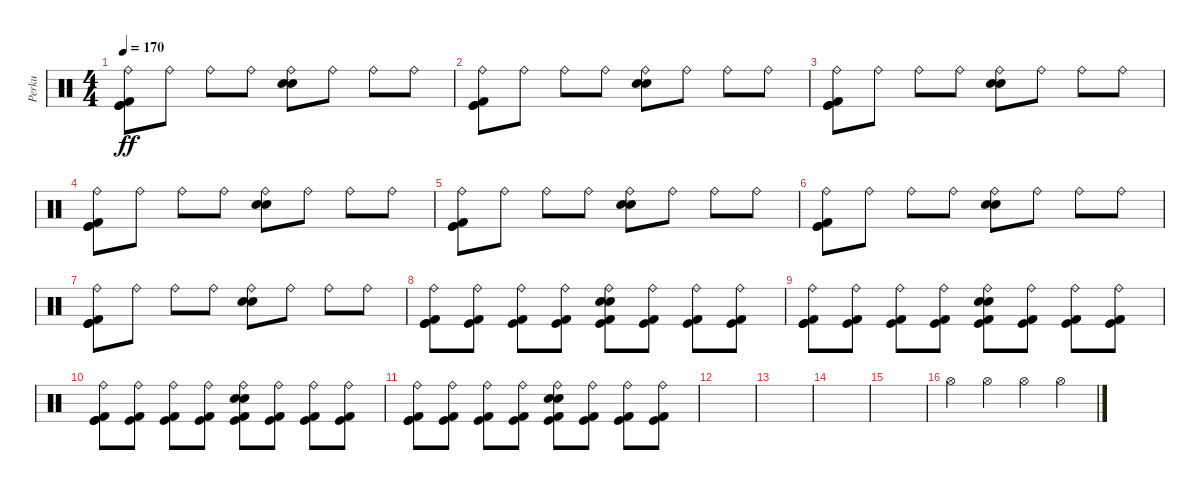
\track ("Perku" "Perku") {instrument percussion}
\staff {score}
\articulation defaults
\ts (4 4)
\tempo 170
\clef neutral
\ks c
("Ride (bell)" "Kick (hit)" "Kick (hit) 2" "Kick (hit)").8{dy ff} "Ride (bell)".8 "Ride (bell)".8 "Ride (bell)".8 ("Ride (bell)" "Electric Snare (hit)" "Electric Snare (hit)").8 "Ride (bell)".8 "Ride (bell)".8 "Ride (bell)".8 |
("Ride (bell)" "Kick (hit)" "Kick (hit) 2" "Kick (hit)").8 "Ride (bell)".8 "Ride (bell)".8 "Ride (bell)".8 ("Ride (bell)" "Electric Snare (hit)" "Electric Snare (hit)").8 "Ride (bell)".8 "Ride (bell)".8 "Ride (bell)".8 |
("Ride (bell)" "Kick (hit)" "Kick (hit) 2" "Kick (hit)").8 "Ride (bell)".8 "Ride (bell)".8 "Ride (bell)".8 ("Ride (bell)" "Electric Snare (hit)" "Electric Snare (hit)").8 "Ride (bell)".8 "Ride (bell)".8 "Ride (bell)".8 |
("Ride (bell)" "Kick (hit)" "Kick (hit) 2" "Kick (hit)").8 "Ride (bell)".8 "Ride (bell)".8 "Ride (bell)".8 ("Ride (bell)" "Electric Snare (hit)" "Electric Snare (hit)").8 "Ride (bell)".8 "Ride (bell)".8 "Ride (bell)".8 |
("Ride (bell)" "Kick (hit)" "Kick (hit) 2" "Kick (hit)").8 "Ride (bell)".8 "Ride (bell)".8 "Ride (bell)".8 ("Ride (bell)" "Electric Snare (hit)" "Electric Snare (hit)").8 "Ride (bell)".8 "Ride (bell)".8 "Ride (bell)".8 |
("Ride (bell)" "Kick (hit)" "Kick (hit) 2" "Kick (hit)").8 "Ride (bell)".8 "Ride (bell)".8 "Ride (bell)".8 ("Ride (bell)" "Electric Snare (hit)" "Electric Snare (hit)").8 "Ride (bell)".8 "Ride (bell)".8 "Ride (bell)".8 |
("Ride (bell)" "Kick (hit)" "Kick (hit) 2" "Kick (hit)").8 "Ride (bell)".8 "Ride (bell)".8 "Ride (bell)".8 ("Ride (bell)" "Electric Snare (hit)" "Electric Snare (hit)").8 "Ride (bell)".8 "Ride (bell)".8 "Ride (bell)".8 |
("Ride (bell)" "Kick (hit)" "Kick (hit) 2" "Kick (hit)").8 ("Ride (bell)" "Kick (hit) 2" "Kick (hit)").8 ("Ride (bell)" "Kick (hit) 2" "Kick (hit)").8 ("Ride (bell)" "Kick (hit) 2" "Kick (hit)").8 ("Ride (bell)" "Electric Snare (hit)" "Electric Snare (hit)" "Kick (hit) 2" "Kick (hit)").8 ("Ride (bell)" "Kick (hit) 2" "Kick (hit)").8 ("Ride (bell)" "Kick (hit) 2" "Kick (hit)").8 ("Ride (bell)" "Kick (hit) 2" "Kick (hit)").8 |
("Ride (bell)" "Kick (hit)" "Kick (hit) 2" "Kick (hit)").8 ("Ride (bell)" "Kick (hit) 2" "Kick (hit)").8 ("Ride (bell)" "Kick (hit) 2" "Kick (hit)").8 ("Ride (bell)" "Kick (hit) 2" "Kick (hit)").8 ("Ride (bell)" "Electric Snare (hit)" "Electric Snare (hit)" "Kick (hit) 2" "Kick (hit)").8 ("Ride (bell)" "Kick (hit) 2" "Kick (hit)").8 ("Ride (bell)" "Kick (hit) 2" "Kick (hit)").8 ("Ride (bell)" "Kick (hit) 2" "Kick (hit)").8 |
("Ride (bell)" "Kick (hit)" "Kick (hit) 2" "Kick (hit)").8 ("Ride (bell)" "Kick (hit) 2" "Kick (hit)").8 ("Ride (bell)" "Kick (hit) 2" "Kick (hit)").8 ("Ride (bell)" "Kick (hit) 2" "Kick (hit)").8 ("Ride (bell)" "Electric Snare (hit)" "Electric Snare (hit)" "Kick (hit) 2" "Kick (hit)").8 ("Ride (bell)" "Kick (hit) 2" "Kick (hit)").8 ("Ride (bell)" "Kick (hit) 2" "Kick (hit)").8 ("Ride (bell)" "Kick (hit) 2" "Kick (hit)").8 |
("Ride (bell)" "Kick (hit)" "Kick (hit) 2" "Kick (hit)").8 ("Ride (bell)" "Kick (hit) 2" "Kick (hit)").8 ("Ride (bell)" "Kick (hit) 2" "Kick (hit)").8 ("Ride (bell)" "Kick (hit) 2" "Kick (hit)").8 ("Ride (bell)" "Electric Snare (hit)" "Electric Snare (hit)" "Kick (hit) 2" "Kick (hit)").8 ("Ride (bell)" "Kick (hit) 2" "Kick (hit)").8 ("Ride (bell)" "Kick (hit) 2" "Kick (hit)").8 ("Ride (bell)" "Kick (hit) 2" "Kick (hit)").8 |
|
|
|
|
"Hi-Hat (open)".4 "Hi-Hat (open)".4 "Hi-Hat (open)".4 "Hi-Hat (open)".4
